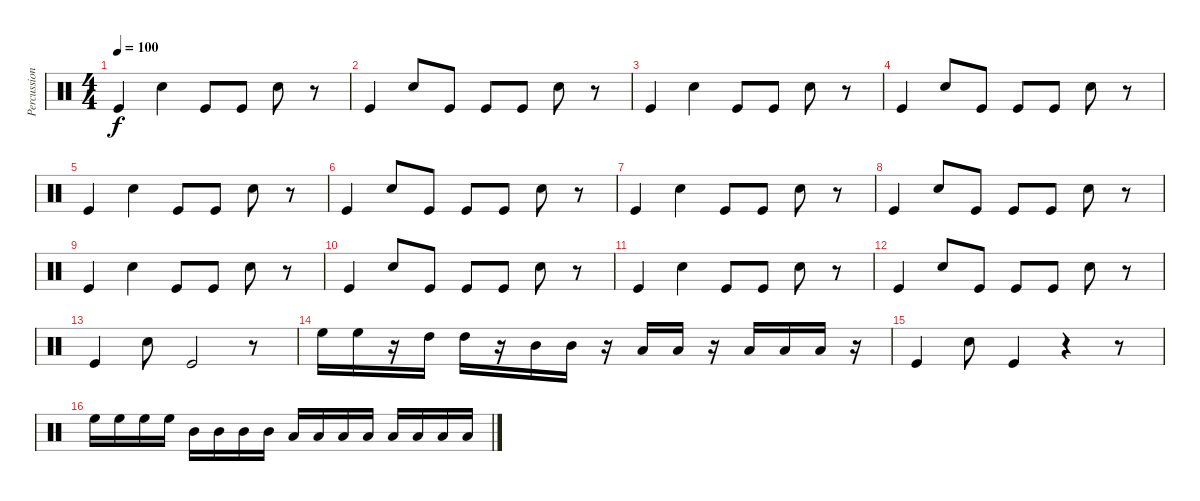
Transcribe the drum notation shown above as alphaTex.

\track ("Percussion" "Percussion") {instrument percussion}
\staff {score}
\articulation defaults
\ts (4 4)
\tempo 100
\clef neutral
\ks c "Kick (hit)".4{dy f} "Snare (hit) 2".4 "Kick (hit)".8 "Kick (hit)".8 "Snare (hit) 2".8
r.8 |
"Kick (hit)".4 "Snare (hit) 2".8 "Kick (hit)".8 "Kick (hit)".8 "Kick (hit)".8 "Snare (hit) 2".8 r.8 |
"Kick (hit)".4 "Snare (hit) 2".4 "Kick (hit)".8 "Kick (hit)".8 "Snare (hit) 2".8 r.8 |
"Kick (hit)".4 "Snare (hit) 2".8 "Kick (hit)".8 "Kick (hit)".8 "Kick (hit)".8 "Snare (hit) 2".8 r.8 |
"Kick (hit)".4 "Snare (hit) 2".4 "Kick (hit)".8 "Kick (hit)".8 "Snare (hit) 2".8 r.8 |
"Kick (hit)".4 "Snare (hit) 2".8 "Kick (hit)".8 "Kick (hit)".8 "Kick (hit)".8 "Snare (hit) 2".8 r.8 |
"Kick (hit)".4 "Snare (hit) 2".4 "Kick (hit)".8 "Kick (hit)".8 "Snare (hit) 2".8 r.8 |
"Kick (hit)".4 "Snare (hit) 2".8 "Kick (hit)".8 "Kick (hit)".8 "Kick (hit)".8 "Snare (hit) 2".8 r.8 |
"Kick (hit)".4 "Snare (hit) 2".4 "Kick (hit)".8 "Kick (hit)".8 "Snare (hit) 2".8 r.8 |
"Kick (hit)".4 "Snare (hit) 2".8 "Kick (hit)".8 "Kick (hit)".8 "Kick (hit)".8 "Snare (hit) 2".8 r.8 |
"Kick (hit)".4 "Snare (hit) 2".4 "Kick (hit)".8 "Kick (hit)".8 "Snare (hit) 2".8 r.8 |
"Kick (hit)".4 "Snare (hit) 2".8 "Kick (hit)".8 "Kick (hit)".8 "Kick (hit)".8 "Snare (hit) 2".8 r.8 |
"Kick (hit)".4 "Snare (hit) 2".8 "Kick (hit)".2 r.8 |
"High Floor Tom (hit)".16 "High Floor Tom (hit)".16 r.16 "High Tom (hit)".16 "High Tom (hit)".16 r.16 "Mid Tom (hit)".16 "Mid Tom (hit)".16 r.16 "Low Tom (hit)".16 "Low Tom (hit)".16 r.16 "Low Floor Tom (hit)".16 "Low Floor Tom (hit)".16 "Low Floor Tom (hit)".16 r.16 |
"Kick (hit)".4 "Snare (hit) 2".8 "Kick (hit)".4 r.4 r.8 |
"High Floor Tom (hit)".16 "High Floor Tom (hit)".16 "High Floor Tom (hit)".16 "High Floor Tom (hit)".16 "Mid Tom (hit)".16 "Mid Tom (hit)".16 "Mid Tom (hit)".16 "Mid Tom (hit)".16 "Low Tom (hit)".16 "Low Tom (hit)".16 "Low Tom (hit)".16 "Low Tom (hit)".16 "Low Floor Tom (hit)".16 "Low Floor Tom (hit)".16 "Low Floor Tom (hit)".16 "Low Floor Tom (hit)".16
